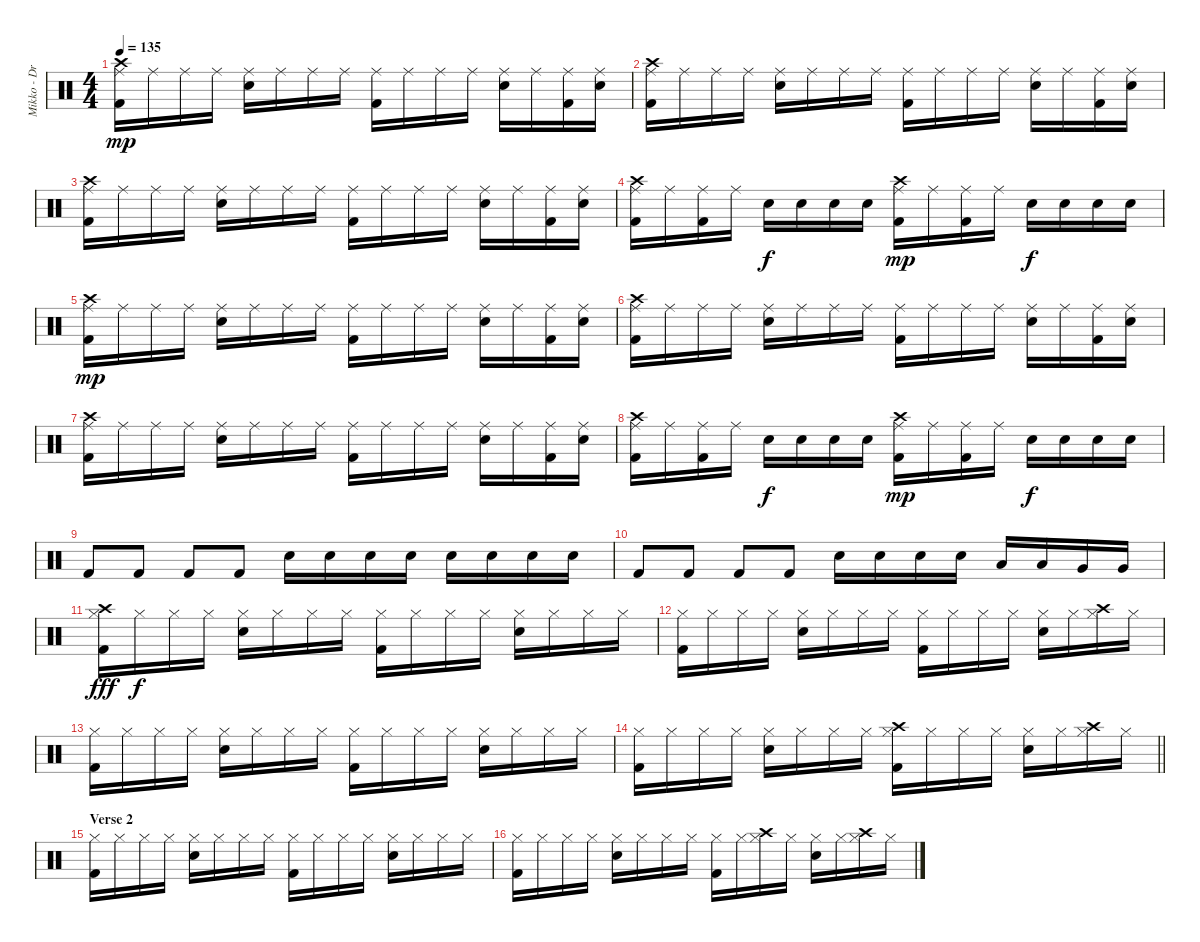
\track ("Mikko - Drums" "Mikko - Dr") {instrument percussion}
\staff {score}
\articulation defaults
\ts (4 4)
\tempo 135
\clef neutral
\ks c
("Ride (middle)" "Crash high (hit)" "Kick (hit) 2").16{dy mp} "Ride (middle)".16 "Ride (middle)".16 "Ride (middle)".16 ("Ride (middle)" "Snare (hit) 2").16 "Ride (middle)".16 "Ride (middle)".16 "Ride (middle)".16 ("Ride (middle)" "Kick (hit) 2").16 "Ride (middle)".16 "Ride (middle)".16 "Ride (middle)".16 ("Ride (middle)" "Snare (hit) 2").16 "Ride (middle)".16 ("Ride (middle)" "Kick (hit) 2").16 ("Ride (middle)" "Snare (hit) 2").16 |
("Ride (middle)" "Crash high (hit)" "Kick (hit) 2").16 "Ride (middle)".16 "Ride (middle)".16 "Ride (middle)".16 ("Ride (middle)" "Snare (hit) 2").16 "Ride (middle)".16 "Ride (middle)".16 "Ride (middle)".16 ("Ride (middle)" "Kick (hit) 2").16 "Ride (middle)".16 "Ride (middle)".16 "Ride (middle)".16 ("Ride (middle)" "Snare (hit) 2").16 "Ride (middle)".16 ("Ride (middle)" "Kick (hit) 2").16 ("Ride (middle)" "Snare (hit) 2").16 |
("Ride (middle)" "Crash high (hit)" "Kick (hit) 2").16 "Ride (middle)".16 "Ride (middle)".16 "Ride (middle)".16 ("Ride (middle)" "Snare (hit) 2").16 "Ride (middle)".16 "Ride (middle)".16 "Ride (middle)".16 ("Ride (middle)" "Kick (hit) 2").16 "Ride (middle)".16 "Ride (middle)".16 "Ride (middle)".16 ("Ride (middle)" "Snare (hit) 2").16 "Ride (middle)".16 ("Ride (middle)" "Kick (hit) 2").16 ("Ride (middle)" "Snare (hit) 2").16 |
("Ride (middle)" "Crash high (hit)" "Kick (hit) 2").16 "Ride (middle)".16 ("Ride (middle)" "Kick (hit) 2").16 "Ride (middle)".16 "Snare (hit) 2".16{dy f} "Snare (hit) 2".16 "Snare (hit) 2".16 "Snare (hit) 2".16 ("Ride (middle)" "Crash high (hit)" "Kick (hit) 2").16{dy mp} "Ride (middle)".16 ("Ride (middle)" "Kick (hit) 2").16 "Ride (middle)".16 "Snare (hit) 2".16{dy f} "Snare (hit) 2".16 "Snare (hit) 2".16 "Snare (hit) 2".16 |
("Ride (middle)" "Crash high (hit)" "Kick (hit) 2").16{dy mp} "Ride (middle)".16 "Ride (middle)".16 "Ride (middle)".16 ("Ride (middle)" "Snare (hit) 2").16 "Ride (middle)".16 "Ride (middle)".16 "Ride (middle)".16 ("Ride (middle)" "Kick (hit) 2").16 "Ride (middle)".16 "Ride (middle)".16 "Ride (middle)".16 ("Ride (middle)" "Snare (hit) 2").16 "Ride (middle)".16 ("Ride (middle)" "Kick (hit) 2").16 ("Ride (middle)" "Snare (hit) 2").16 |
("Ride (middle)" "Crash high (hit)" "Kick (hit) 2").16 "Ride (middle)".16 "Ride (middle)".16 "Ride (middle)".16 ("Ride (middle)" "Snare (hit) 2").16 "Ride (middle)".16 "Ride (middle)".16 "Ride (middle)".16 ("Ride (middle)" "Kick (hit) 2").16 "Ride (middle)".16 "Ride (middle)".16 "Ride (middle)".16 ("Ride (middle)" "Snare (hit) 2").16 "Ride (middle)".16 ("Ride (middle)" "Kick (hit) 2").16 ("Ride (middle)" "Snare (hit) 2").16 |
("Ride (middle)" "Crash high (hit)" "Kick (hit) 2").16 "Ride (middle)".16 "Ride (middle)".16 "Ride (middle)".16 ("Ride (middle)" "Snare (hit) 2").16 "Ride (middle)".16 "Ride (middle)".16 "Ride (middle)".16 ("Ride (middle)" "Kick (hit) 2").16 "Ride (middle)".16 "Ride (middle)".16 "Ride (middle)".16 ("Ride (middle)" "Snare (hit) 2").16 "Ride (middle)".16 ("Ride (middle)" "Kick (hit) 2").16 ("Ride (middle)" "Snare (hit) 2").16 |
("Ride (middle)" "Crash high (hit)" "Kick (hit) 2").16 "Ride (middle)".16 ("Ride (middle)" "Kick (hit) 2").16 "Ride (middle)".16 "Snare (hit) 2".16{dy f} "Snare (hit) 2".16 "Snare (hit) 2".16 "Snare (hit) 2".16 ("Ride (middle)" "Crash high (hit)" "Kick (hit) 2").16{dy mp} "Ride (middle)".16 ("Ride (middle)" "Kick (hit) 2").16 "Ride (middle)".16 "Snare (hit) 2".16{dy f} "Snare (hit) 2".16 "Snare (hit) 2".16 "Snare (hit) 2".16 |
"Kick (hit) 2".8 "Kick (hit) 2".8 "Kick (hit) 2".8 "Kick (hit) 2".8 "Electric Snare (hit)".16 "Electric Snare (hit)".16 "Electric Snare (hit)".16 "Electric Snare (hit)".16 "Electric Snare (hit)".16 "Electric Snare (hit)".16 "Electric Snare (hit)".16 "Electric Snare (hit)".16 |
"Kick (hit) 2".8 "Kick (hit) 2".8 "Kick (hit) 2".8 "Kick (hit) 2".8 "Electric Snare (hit)".16 "Electric Snare (hit)".16 "Electric Snare (hit)".16 "Electric Snare (hit)".16 "Low Tom (hit)".16 "Low Tom (hit)".16 "Very Low Tom (hit)".16 "Very Low Tom (hit)".16 |
("Hi-Hat (closed)" "Crash high (hit)" "Kick (hit) 2").16{dy fff} "Hi-Hat (closed)".16{dy f} "Hi-Hat (closed)".16 "Hi-Hat (closed)".16 ("Hi-Hat (closed)" "Snare (hit) 2").16 "Hi-Hat (closed)".16 "Hi-Hat (closed)".16 "Hi-Hat (closed)".16 ("Hi-Hat (closed)" "Kick (hit) 2").16 "Hi-Hat (closed)".16 "Hi-Hat (closed)".16 "Hi-Hat (closed)".16 ("Hi-Hat (closed)" "Snare (hit) 2").16 "Hi-Hat (closed)".16 "Hi-Hat (closed)".16 "Hi-Hat (closed)".16 |
("Hi-Hat (closed)" "Kick (hit) 2").16 "Hi-Hat (closed)".16 "Hi-Hat (closed)".16 "Hi-Hat (closed)".16 ("Hi-Hat (closed)" "Snare (hit) 2").16 "Hi-Hat (closed)".16 "Hi-Hat (closed)".16 "Hi-Hat (closed)".16 ("Hi-Hat (closed)" "Kick (hit) 2").16 "Hi-Hat (closed)".16 "Hi-Hat (closed)".16 "Hi-Hat (closed)".16 ("Hi-Hat (closed)" "Snare (hit) 2").16 "Hi-Hat (closed)".16 ("Hi-Hat (closed)" "Crash high (hit)").16 "Hi-Hat (closed)".16 |
("Hi-Hat (closed)" "Kick (hit) 2").16 "Hi-Hat (closed)".16 "Hi-Hat (closed)".16 "Hi-Hat (closed)".16 ("Hi-Hat (closed)" "Snare (hit) 2").16 "Hi-Hat (closed)".16 "Hi-Hat (closed)".16 "Hi-Hat (closed)".16 ("Hi-Hat (closed)" "Kick (hit) 2").16 "Hi-Hat (closed)".16 "Hi-Hat (closed)".16 "Hi-Hat (closed)".16 ("Hi-Hat (closed)" "Snare (hit) 2").16 "Hi-Hat (closed)".16 "Hi-Hat (closed)".16 "Hi-Hat (closed)".16 |
\barLineRight lightlight
("Hi-Hat (closed)" "Kick (hit) 2").16 "Hi-Hat (closed)".16 "Hi-Hat (closed)".16 "Hi-Hat (closed)".16 ("Hi-Hat (closed)" "Snare (hit) 2").16 "Hi-Hat (closed)".16 "Hi-Hat (closed)".16 "Hi-Hat (closed)".16 ("Hi-Hat (closed)" "Crash high (hit)" "Kick (hit) 2").16 "Hi-Hat (closed)".16 "Hi-Hat (closed)".16 "Hi-Hat (closed)".16 ("Hi-Hat (closed)" "Snare (hit) 2").16 "Hi-Hat (closed)".16 ("Hi-Hat (closed)" "Crash high (hit)").16 "Hi-Hat (closed)".16 |
\section ("" "Verse 2")
("Hi-Hat (closed)" "Kick (hit) 2").16 "Hi-Hat (closed)".16 "Hi-Hat (closed)".16 "Hi-Hat (closed)".16 ("Hi-Hat (closed)" "Snare (hit) 2").16 "Hi-Hat (closed)".16 "Hi-Hat (closed)".16 "Hi-Hat (closed)".16 ("Hi-Hat (closed)" "Kick (hit) 2").16 "Hi-Hat (closed)".16 "Hi-Hat (closed)".16 "Hi-Hat (closed)".16 ("Hi-Hat (closed)" "Snare (hit) 2").16 "Hi-Hat (closed)".16 "Hi-Hat (closed)".16 "Hi-Hat (closed)".16 |
("Hi-Hat (closed)" "Kick (hit) 2").16 "Hi-Hat (closed)".16 "Hi-Hat (closed)".16 "Hi-Hat (closed)".16 ("Hi-Hat (closed)" "Snare (hit) 2").16 "Hi-Hat (closed)".16 "Hi-Hat (closed)".16 "Hi-Hat (closed)".16 ("Hi-Hat (closed)" "Kick (hit) 2").16 "Hi-Hat (closed)".16 ("Hi-Hat (closed)" "Crash high (hit)").16 "Hi-Hat (closed)".16 ("Hi-Hat (closed)" "Snare (hit) 2").16 "Hi-Hat (closed)".16 ("Hi-Hat (closed)" "Crash high (hit)").16 "Hi-Hat (closed)".16
